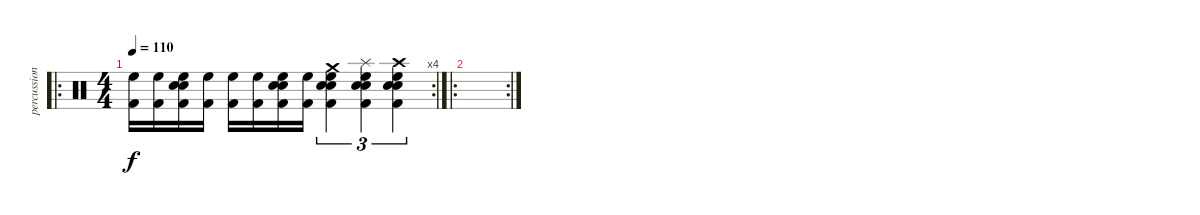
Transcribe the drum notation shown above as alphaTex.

\track ("percussion" "percussion") {instrument percussion}
\staff {score}
\articulation defaults
\ro
\rc 4
\ts (4 4)
\tempo 110
\clef neutral
\ks c
("Kick (hit) 2" "High Floor Tom (hit)").16{dy f} ("Kick (hit) 2" "High Floor Tom (hit)").16 ("Electric Snare (hit)" "Snare (hit) 2" "Kick (hit) 2" "High Floor Tom (hit)").16 ("Kick (hit) 2" "High Floor Tom (hit)").16 ("Kick (hit) 2" "High Floor Tom (hit)").16 ("Kick (hit) 2" "High Floor Tom (hit)").16 ("Electric Snare (hit)" "Snare (hit) 2" "Kick (hit) 2" "High Floor Tom (hit)").16 ("Kick (hit) 2" "High Floor Tom (hit)").16 ("Crash medium (hit)" "Electric Snare (hit)" "Snare (hit) 2" "Kick (hit) 2" "High Floor Tom (hit)").4{tu (3 2)} ("Splash (hit)" "Electric Snare (hit)" "Snare (hit) 2" "Kick (hit) 2" "High Floor Tom (hit)").4{tu (3 2)} ("Crash high (hit)" "Electric Snare (hit)" "Snare (hit) 2" "Kick (hit) 2" "High Floor Tom (hit)").4{tu (3 2)} |
\ro
\rc 2
